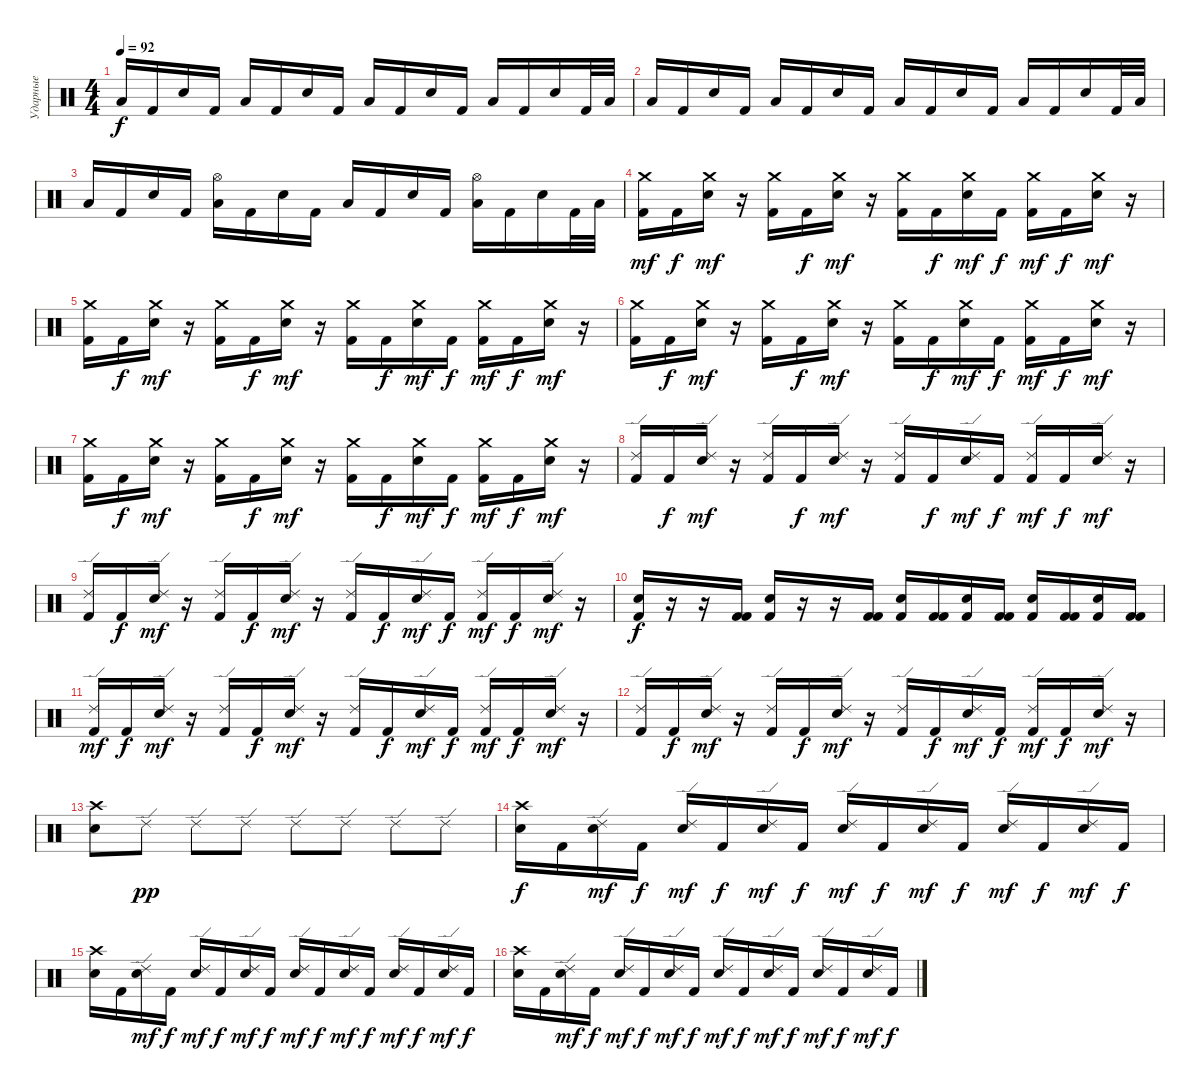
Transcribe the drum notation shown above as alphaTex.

\track ("Ударные" "Ударные") {instrument percussion}
\staff {score}
\articulation defaults
\ts (4 4)
\tempo 92
\clef neutral
\ks c "Low Floor Tom (hit)".16{dy f} "Kick (hit) 2".16 "Electric Snare (hit)".16 "Kick (hit) 2".16 "Low Floor Tom (hit)".16 "Kick (hit) 2".16 "Electric Snare (hit)".16 "Kick (hit) 2".16 "Low Floor Tom (hit)".16 "Kick (hit) 2".16 "Electric Snare (hit)".16 "Kick (hit) 2".16 "Low Floor Tom (hit)".16 "Kick (hit) 2".16 "Electric Snare (hit)".16 "Kick (hit) 2".32 "Low Floor Tom (hit)".32
|
"Low Floor Tom (hit)".16 "Kick (hit) 2".16 "Electric Snare (hit)".16 "Kick (hit) 2".16 "Low Floor Tom (hit)".16 "Kick (hit) 2".16 "Electric Snare (hit)".16 "Kick (hit) 2".16 "Low Floor Tom (hit)".16 "Kick (hit) 2".16 "Electric Snare (hit)".16 "Kick (hit) 2".16 "Low Floor Tom (hit)".16 "Kick (hit) 2".16 "Electric Snare (hit)".16 "Kick (hit) 2".32 "Low Floor Tom (hit)".32 |
"Low Floor Tom (hit)".16 "Kick (hit) 2".16 "Electric Snare (hit)".16 "Kick (hit) 2".16 ("Hi-Hat (open)" "Low Floor Tom (hit)").16 "Kick (hit) 2".16 "Electric Snare (hit)".16 "Kick (hit) 2".16 "Low Floor Tom (hit)".16 "Kick (hit) 2".16 "Electric Snare (hit)".16 "Kick (hit) 2".16 ("Hi-Hat (open)" "Low Floor Tom (hit)").16 "Kick (hit) 2".16 "Electric Snare (hit)".16 "Kick (hit) 2".32 "Low Floor Tom (hit)".32 |
("Crash medium (hit)" "Kick (hit) 2").16{dy mf} "Kick (hit) 2".16{dy f} ("Crash medium (hit)" "Snare (hit) 2").16{dy mf} r.16 ("Crash medium (hit)" "Kick (hit) 2").16 "Kick (hit) 2".16{dy f} ("Crash medium (hit)" "Snare (hit) 2").16{dy mf} r.16 ("Crash medium (hit)" "Kick (hit) 2").16 "Kick (hit) 2".16{dy f} ("Crash medium (hit)" "Snare (hit) 2").16{dy mf} "Kick (hit) 2".16{dy f} ("Crash medium (hit)" "Kick (hit) 2").16{dy mf} "Kick (hit) 2".16{dy f} ("Crash medium (hit)" "Snare (hit) 2").16{dy mf} r.16 |
("Crash medium (hit)" "Kick (hit) 2").16 "Kick (hit) 2".16{dy f} ("Crash medium (hit)" "Snare (hit) 2").16{dy mf} r.16 ("Crash medium (hit)" "Kick (hit) 2").16 "Kick (hit) 2".16{dy f} ("Crash medium (hit)" "Snare (hit) 2").16{dy mf} r.16 ("Crash medium (hit)" "Kick (hit) 2").16 "Kick (hit) 2".16{dy f} ("Crash medium (hit)" "Snare (hit) 2").16{dy mf} "Kick (hit) 2".16{dy f} ("Crash medium (hit)" "Kick (hit) 2").16{dy mf} "Kick (hit) 2".16{dy f} ("Crash medium (hit)" "Snare (hit) 2").16{dy mf} r.16 |
("Crash medium (hit)" "Kick (hit) 2").16 "Kick (hit) 2".16{dy f} ("Crash medium (hit)" "Snare (hit) 2").16{dy mf} r.16 ("Crash medium (hit)" "Kick (hit) 2").16 "Kick (hit) 2".16{dy f} ("Crash medium (hit)" "Snare (hit) 2").16{dy mf} r.16 ("Crash medium (hit)" "Kick (hit) 2").16 "Kick (hit) 2".16{dy f} ("Crash medium (hit)" "Snare (hit) 2").16{dy mf} "Kick (hit) 2".16{dy f} ("Crash medium (hit)" "Kick (hit) 2").16{dy mf} "Kick (hit) 2".16{dy f} ("Crash medium (hit)" "Snare (hit) 2").16{dy mf} r.16 |
("Crash medium (hit)" "Kick (hit) 2").16 "Kick (hit) 2".16{dy f} ("Crash medium (hit)" "Snare (hit) 2").16{dy mf} r.16 ("Crash medium (hit)" "Kick (hit) 2").16 "Kick (hit) 2".16{dy f} ("Crash medium (hit)" "Snare (hit) 2").16{dy mf} r.16 ("Crash medium (hit)" "Kick (hit) 2").16 "Kick (hit) 2".16{dy f} ("Crash medium (hit)" "Snare (hit) 2").16{dy mf} "Kick (hit) 2".16{dy f} ("Crash medium (hit)" "Kick (hit) 2").16{dy mf} "Kick (hit) 2".16{dy f} ("Crash medium (hit)" "Snare (hit) 2").16{dy mf} r.16 |
("Ride (edge) 2" "Kick (hit) 2").16 "Kick (hit) 2".16{dy f} ("Ride (edge) 2" "Snare (hit) 2").16{dy mf} r.16 ("Ride (edge) 2" "Kick (hit) 2").16 "Kick (hit) 2".16{dy f} ("Ride (edge) 2" "Snare (hit) 2").16{dy mf} r.16 ("Ride (edge) 2" "Kick (hit) 2").16 "Kick (hit) 2".16{dy f} ("Ride (edge) 2" "Snare (hit) 2").16{dy mf} "Kick (hit) 2".16{dy f} ("Ride (edge) 2" "Kick (hit) 2").16{dy mf} "Kick (hit) 2".16{dy f} ("Ride (edge) 2" "Snare (hit) 2").16{dy mf} r.16 |
("Ride (edge) 2" "Kick (hit) 2").16 "Kick (hit) 2".16{dy f} ("Ride (edge) 2" "Snare (hit) 2").16{dy mf} r.16 ("Ride (edge) 2" "Kick (hit) 2").16 "Kick (hit) 2".16{dy f} ("Ride (edge) 2" "Snare (hit) 2").16{dy mf} r.16 ("Ride (edge) 2" "Kick (hit) 2").16 "Kick (hit) 2".16{dy f} ("Ride (edge) 2" "Snare (hit) 2").16{dy mf} "Kick (hit) 2".16{dy f} ("Ride (edge) 2" "Kick (hit) 2").16{dy mf} "Kick (hit) 2".16{dy f} ("Ride (edge) 2" "Snare (hit) 2").16{dy mf} r.16 |
("Kick (hit) 2" "Snare (hit) 2").16{dy f} r.16 r.16 ("Kick (hit) 2" "Kick (hit) 2").16 ("Kick (hit) 2" "Snare (hit) 2").16 r.16 r.16 ("Kick (hit) 2" "Kick (hit) 2").16 ("Kick (hit) 2" "Snare (hit) 2").16 ("Kick (hit) 2" "Kick (hit) 2").16 ("Kick (hit) 2" "Snare (hit) 2").16 ("Kick (hit) 2" "Kick (hit) 2").16 ("Kick (hit) 2" "Snare (hit) 2").16 ("Kick (hit) 2" "Kick (hit) 2").16 ("Kick (hit) 2" "Snare (hit) 2").16 ("Kick (hit) 2" "Kick (hit) 2").16 |
("Ride (edge) 2" "Kick (hit) 2").16{dy mf} "Kick (hit) 2".16{dy f} ("Ride (edge) 2" "Snare (hit) 2").16{dy mf} r.16 ("Ride (edge) 2" "Kick (hit) 2").16 "Kick (hit) 2".16{dy f} ("Ride (edge) 2" "Snare (hit) 2").16{dy mf} r.16 ("Ride (edge) 2" "Kick (hit) 2").16 "Kick (hit) 2".16{dy f} ("Ride (edge) 2" "Snare (hit) 2").16{dy mf} "Kick (hit) 2".16{dy f} ("Ride (edge) 2" "Kick (hit) 2").16{dy mf} "Kick (hit) 2".16{dy f} ("Ride (edge) 2" "Snare (hit) 2").16{dy mf} r.16 |
("Ride (edge) 2" "Kick (hit) 2").16 "Kick (hit) 2".16{dy f} ("Ride (edge) 2" "Snare (hit) 2").16{dy mf} r.16 ("Ride (edge) 2" "Kick (hit) 2").16 "Kick (hit) 2".16{dy f} ("Ride (edge) 2" "Snare (hit) 2").16{dy mf} r.16 ("Ride (edge) 2" "Kick (hit) 2").16 "Kick (hit) 2".16{dy f} ("Ride (edge) 2" "Snare (hit) 2").16{dy mf} "Kick (hit) 2".16{dy f} ("Ride (edge) 2" "Kick (hit) 2").16{dy mf} "Kick (hit) 2".16{dy f} ("Ride (edge) 2" "Snare (hit) 2").16{dy mf} r.16 |
("Crash high (hit)" "Snare (hit) 2").8 "Ride (edge) 2".8{dy pp} "Ride (edge) 2".8 "Ride (edge) 2".8 "Ride (edge) 2".8 "Ride (edge) 2".8 "Ride (edge) 2".8 "Ride (edge) 2".8 |
("Crash high (hit)" "Snare (hit) 2").16{dy f} "Kick (hit) 2".16 ("Ride (edge) 2" "Snare (hit) 2").16{dy mf} "Kick (hit) 2".16{dy f} ("Ride (edge) 2" "Snare (hit) 2").16{dy mf} "Kick (hit) 2".16{dy f} ("Ride (edge) 2" "Snare (hit) 2").16{dy mf} "Kick (hit) 2".16{dy f} ("Ride (edge) 2" "Snare (hit) 2").16{dy mf} "Kick (hit) 2".16{dy f} ("Ride (edge) 2" "Snare (hit) 2").16{dy mf} "Kick (hit) 2".16{dy f} ("Ride (edge) 2" "Snare (hit) 2").16{dy mf} "Kick (hit) 2".16{dy f} ("Ride (edge) 2" "Snare (hit) 2").16{dy mf} "Kick (hit) 2".16{dy f} |
("Crash high (hit)" "Snare (hit) 2").16 "Kick (hit) 2".16 ("Ride (edge) 2" "Snare (hit) 2").16{dy mf} "Kick (hit) 2".16{dy f} ("Ride (edge) 2" "Snare (hit) 2").16{dy mf} "Kick (hit) 2".16{dy f} ("Ride (edge) 2" "Snare (hit) 2").16{dy mf} "Kick (hit) 2".16{dy f} ("Ride (edge) 2" "Snare (hit) 2").16{dy mf} "Kick (hit) 2".16{dy f} ("Ride (edge) 2" "Snare (hit) 2").16{dy mf} "Kick (hit) 2".16{dy f} ("Ride (edge) 2" "Snare (hit) 2").16{dy mf} "Kick (hit) 2".16{dy f} ("Ride (edge) 2" "Snare (hit) 2").16{dy mf} "Kick (hit) 2".16{dy f} |
("Crash high (hit)" "Snare (hit) 2").16 "Kick (hit) 2".16 ("Ride (edge) 2" "Snare (hit) 2").16{dy mf} "Kick (hit) 2".16{dy f} ("Ride (edge) 2" "Snare (hit) 2").16{dy mf} "Kick (hit) 2".16{dy f} ("Ride (edge) 2" "Snare (hit) 2").16{dy mf} "Kick (hit) 2".16{dy f} ("Ride (edge) 2" "Snare (hit) 2").16{dy mf} "Kick (hit) 2".16{dy f} ("Ride (edge) 2" "Snare (hit) 2").16{dy mf} "Kick (hit) 2".16{dy f} ("Ride (edge) 2" "Snare (hit) 2").16{dy mf} "Kick (hit) 2".16{dy f} ("Ride (edge) 2" "Snare (hit) 2").16{dy mf} "Kick (hit) 2".16{dy f}
